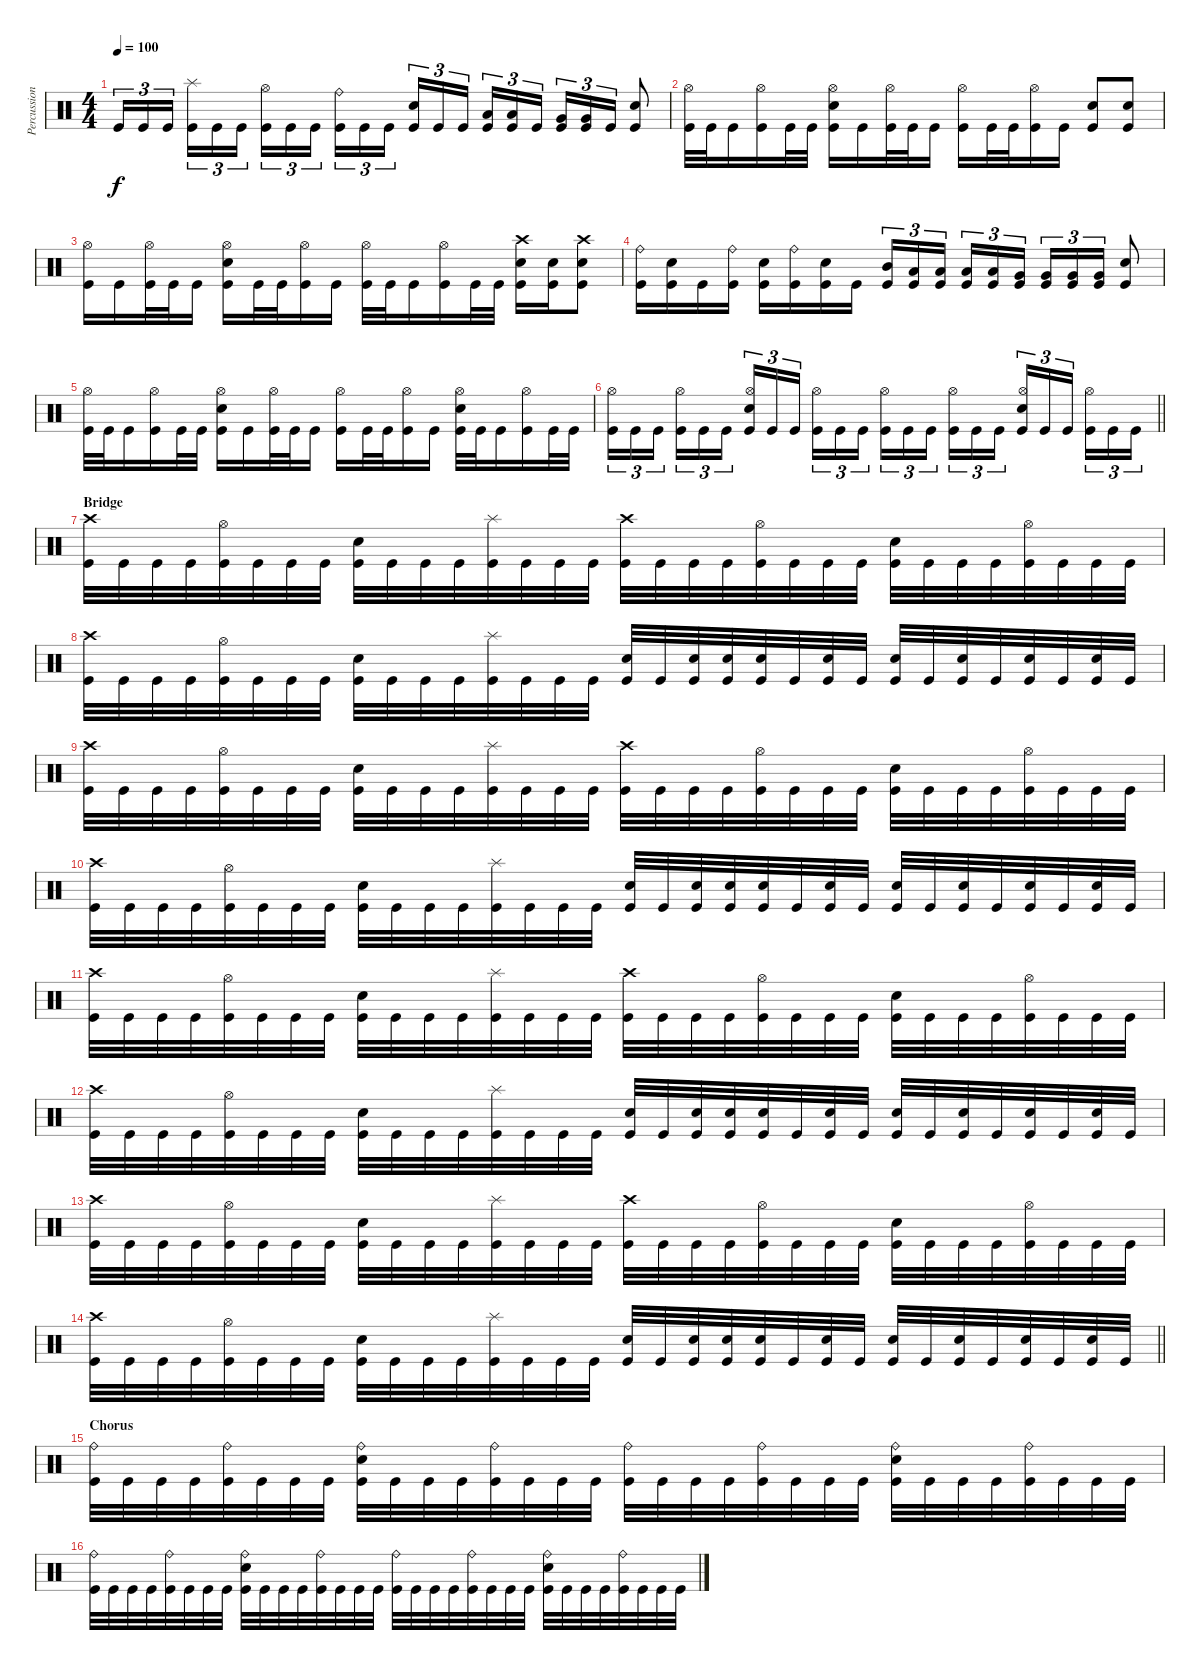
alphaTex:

\track ("Percussions" "Percussion") {instrument percussion}
\staff {score}
\articulation defaults
\ts (4 4)
\tempo 100
\clef neutral
\ks c "Kick (hit)".16{tu (3 2) dy f} "Kick (hit)".16{tu (3 2)} "Kick (hit)".16{tu (3 2) beam splitsecondary}
("Splash (hit)" "Kick (hit)").16{tu (3 2)} "Kick (hit)".16{tu (3 2)} "Kick (hit)".16{tu (3 2)} ("Hi-Hat (open)" "Kick (hit)").16{tu (3 2)} "Kick (hit)".16{tu (3 2)} "Kick (hit)".16{tu (3 2) beam splitsecondary} ("Ride (bell)" "Kick (hit)").16{tu (3 2)} "Kick (hit)".16{tu (3 2)} "Kick (hit)".16{tu (3 2)} ("Electric Snare (hit)" "Kick (hit)").16{tu (3 2)} "Kick (hit)".16{tu (3 2)} "Kick (hit)".16{tu (3 2) beam splitsecondary} ("Low Tom (hit)" "Kick (hit)").16{tu (3 2)} ("Low Tom (hit)" "Kick (hit)").16{tu (3 2)} "Kick (hit)".16{tu (3 2)} ("Very Low Tom (hit)" "Kick (hit)").16{tu (3 2)} ("Very Low Tom (hit)" "Kick (hit)").16{tu (3 2)} "Kick (hit)".16{tu (3 2)} ("Electric Snare (hit)" "Kick (hit)").8 |
("Hi-Hat (open)" "Kick (hit)").32 "Kick (hit)".32 "Kick (hit)".16 ("Hi-Hat (open)" "Kick (hit)").16 "Kick (hit)".32 "Kick (hit)".32 ("Hi-Hat (open)" "Electric Snare (hit)" "Kick (hit)").16 "Kick (hit)".16 ("Hi-Hat (open)" "Kick (hit)").32 "Kick (hit)".32 "Kick (hit)".16 ("Hi-Hat (open)" "Kick (hit)").16 "Kick (hit)".32 "Kick (hit)".32 ("Hi-Hat (open)" "Kick (hit)").16 "Kick (hit)".16 ("Electric Snare (hit)" "Kick (hit)").8 ("Electric Snare (hit)" "Kick (hit)").8 |
("Hi-Hat (open)" "Kick (hit)").16 "Kick (hit)".16 ("Hi-Hat (open)" "Kick (hit)").32 "Kick (hit)".32 "Kick (hit)".16 ("Hi-Hat (open)" "Electric Snare (hit)" "Kick (hit)").16 "Kick (hit)".32 "Kick (hit)".32 ("Hi-Hat (open)" "Kick (hit)").16 "Kick (hit)".16 ("Hi-Hat (open)" "Kick (hit)").32 "Kick (hit)".32 "Kick (hit)".16 ("Hi-Hat (open)" "Kick (hit)").16 "Kick (hit)".32 "Kick (hit)".32 ("Crash high (hit)" "Electric Snare (hit)" "Kick (hit)").16 ("Electric Snare (hit)" "Kick (hit)").16 ("Crash high (hit)" "Electric Snare (hit)" "Kick (hit)").8 |
("Ride (bell)" "Kick (hit)").16 ("Electric Snare (hit)" "Kick (hit)").16 "Kick (hit)".16 ("Ride (bell)" "Kick (hit)").16 ("Electric Snare (hit)" "Kick (hit)").16 ("Ride (bell)" "Kick (hit)").16 ("Electric Snare (hit)" "Kick (hit)").16 "Kick (hit)".16 ("Mid Tom (hit)" "Kick (hit)").16{tu (3 2)} ("Low Tom (hit)" "Kick (hit)").16{tu (3 2)} ("Low Tom (hit)" "Kick (hit)").16{tu (3 2) beam splitsecondary} ("Low Tom (hit)" "Kick (hit)").16{tu (3 2)} ("Low Tom (hit)" "Kick (hit)").16{tu (3 2)} ("Very Low Tom (hit)" "Kick (hit)").16{tu (3 2)} ("Very Low Tom (hit)" "Kick (hit)").16{tu (3 2)} ("Very Low Tom (hit)" "Kick (hit)").16{tu (3 2)} ("Very Low Tom (hit)" "Kick (hit)").16{tu (3 2)} ("Electric Snare (hit)" "Kick (hit)").8 |
("Hi-Hat (open)" "Kick (hit)").32 "Kick (hit)".32 "Kick (hit)".16 ("Hi-Hat (open)" "Kick (hit)").16 "Kick (hit)".32 "Kick (hit)".32 ("Hi-Hat (open)" "Electric Snare (hit)" "Kick (hit)").16 "Kick (hit)".16 ("Hi-Hat (open)" "Kick (hit)").32 "Kick (hit)".32 "Kick (hit)".16 ("Hi-Hat (open)" "Kick (hit)").16 "Kick (hit)".32 "Kick (hit)".32 ("Hi-Hat (open)" "Kick (hit)").16 "Kick (hit)".16 ("Hi-Hat (open)" "Electric Snare (hit)" "Kick (hit)").32 "Kick (hit)".32 "Kick (hit)".16 ("Hi-Hat (open)" "Kick (hit)").16 "Kick (hit)".32 "Kick (hit)".32 |
\barLineRight lightlight
("Hi-Hat (open)" "Kick (hit)").16{tu (3 2)} "Kick (hit)".16{tu (3 2)} "Kick (hit)".16{tu (3 2) beam splitsecondary} ("Hi-Hat (open)" "Kick (hit)").16{tu (3 2)} "Kick (hit)".16{tu (3 2)} "Kick (hit)".16{tu (3 2)} ("Hi-Hat (open)" "Electric Snare (hit)" "Kick (hit)").16{tu (3 2)} "Kick (hit)".16{tu (3 2)} "Kick (hit)".16{tu (3 2) beam splitsecondary} ("Hi-Hat (open)" "Kick (hit)").16{tu (3 2)} "Kick (hit)".16{tu (3 2)} "Kick (hit)".16{tu (3 2)} ("Hi-Hat (open)" "Kick (hit)").16{tu (3 2)} "Kick (hit)".16{tu (3 2)} "Kick (hit)".16{tu (3 2) beam splitsecondary} ("Hi-Hat (open)" "Kick (hit)").16{tu (3 2)} "Kick (hit)".16{tu (3 2)} "Kick (hit)".16{tu (3 2)} ("Hi-Hat (open)" "Electric Snare (hit)" "Kick (hit)").16{tu (3 2)} "Kick (hit)".16{tu (3 2)} "Kick (hit)".16{tu (3 2) beam splitsecondary} ("Hi-Hat (open)" "Kick (hit)").16{tu (3 2)} "Kick (hit)".16{tu (3 2)} "Kick (hit)".16{tu (3 2)} |
\section ("" "Bridge")
("Crash high (hit)" "Kick (hit)").32 "Kick (hit)".32 "Kick (hit)".32 "Kick (hit)".32 ("Hi-Hat (open)" "Kick (hit)").32 "Kick (hit)".32 "Kick (hit)".32 "Kick (hit)".32 ("Electric Snare (hit)" "Kick (hit)").32 "Kick (hit)".32 "Kick (hit)".32 "Kick (hit)".32 ("Splash (hit)" "Kick (hit)").32 "Kick (hit)".32 "Kick (hit)".32 "Kick (hit)".32 ("Crash high (hit)" "Kick (hit)").32 "Kick (hit)".32 "Kick (hit)".32 "Kick (hit)".32 ("Hi-Hat (open)" "Kick (hit)").32 "Kick (hit)".32 "Kick (hit)".32 "Kick (hit)".32 ("Electric Snare (hit)" "Kick (hit)").32 "Kick (hit)".32 "Kick (hit)".32 "Kick (hit)".32 ("Hi-Hat (open)" "Kick (hit)").32 "Kick (hit)".32 "Kick (hit)".32 "Kick (hit)".32 |
("Crash high (hit)" "Kick (hit)").32 "Kick (hit)".32 "Kick (hit)".32 "Kick (hit)".32 ("Hi-Hat (open)" "Kick (hit)").32 "Kick (hit)".32 "Kick (hit)".32 "Kick (hit)".32 ("Electric Snare (hit)" "Kick (hit)").32 "Kick (hit)".32 "Kick (hit)".32 "Kick (hit)".32 ("Splash (hit)" "Kick (hit)").32 "Kick (hit)".32 "Kick (hit)".32 "Kick (hit)".32 ("Electric Snare (hit)" "Kick (hit)").32 "Kick (hit)".32 ("Electric Snare (hit)" "Kick (hit)").32 ("Electric Snare (hit)" "Kick (hit)").32 ("Electric Snare (hit)" "Kick (hit)").32 "Kick (hit)".32 ("Electric Snare (hit)" "Kick (hit)").32 "Kick (hit)".32 ("Electric Snare (hit)" "Kick (hit)").32 "Kick (hit)".32 ("Electric Snare (hit)" "Kick (hit)").32 "Kick (hit)".32 ("Electric Snare (hit)" "Kick (hit)").32 "Kick (hit)".32 ("Electric Snare (hit)" "Kick (hit)").32 "Kick (hit)".32 |
("Crash high (hit)" "Kick (hit)").32 "Kick (hit)".32 "Kick (hit)".32 "Kick (hit)".32 ("Hi-Hat (open)" "Kick (hit)").32 "Kick (hit)".32 "Kick (hit)".32 "Kick (hit)".32 ("Electric Snare (hit)" "Kick (hit)").32 "Kick (hit)".32 "Kick (hit)".32 "Kick (hit)".32 ("Splash (hit)" "Kick (hit)").32 "Kick (hit)".32 "Kick (hit)".32 "Kick (hit)".32 ("Crash high (hit)" "Kick (hit)").32 "Kick (hit)".32 "Kick (hit)".32 "Kick (hit)".32 ("Hi-Hat (open)" "Kick (hit)").32 "Kick (hit)".32 "Kick (hit)".32 "Kick (hit)".32 ("Electric Snare (hit)" "Kick (hit)").32 "Kick (hit)".32 "Kick (hit)".32 "Kick (hit)".32 ("Hi-Hat (open)" "Kick (hit)").32 "Kick (hit)".32 "Kick (hit)".32 "Kick (hit)".32 |
("Crash high (hit)" "Kick (hit)").32 "Kick (hit)".32 "Kick (hit)".32 "Kick (hit)".32 ("Hi-Hat (open)" "Kick (hit)").32 "Kick (hit)".32 "Kick (hit)".32 "Kick (hit)".32 ("Electric Snare (hit)" "Kick (hit)").32 "Kick (hit)".32 "Kick (hit)".32 "Kick (hit)".32 ("Splash (hit)" "Kick (hit)").32 "Kick (hit)".32 "Kick (hit)".32 "Kick (hit)".32 ("Electric Snare (hit)" "Kick (hit)").32 "Kick (hit)".32 ("Electric Snare (hit)" "Kick (hit)").32 ("Electric Snare (hit)" "Kick (hit)").32 ("Electric Snare (hit)" "Kick (hit)").32 "Kick (hit)".32 ("Electric Snare (hit)" "Kick (hit)").32 "Kick (hit)".32 ("Electric Snare (hit)" "Kick (hit)").32 "Kick (hit)".32 ("Electric Snare (hit)" "Kick (hit)").32 "Kick (hit)".32 ("Electric Snare (hit)" "Kick (hit)").32 "Kick (hit)".32 ("Electric Snare (hit)" "Kick (hit)").32 "Kick (hit)".32 |
("Crash high (hit)" "Kick (hit)").32 "Kick (hit)".32 "Kick (hit)".32 "Kick (hit)".32 ("Hi-Hat (open)" "Kick (hit)").32 "Kick (hit)".32 "Kick (hit)".32 "Kick (hit)".32 ("Electric Snare (hit)" "Kick (hit)").32 "Kick (hit)".32 "Kick (hit)".32 "Kick (hit)".32 ("Splash (hit)" "Kick (hit)").32 "Kick (hit)".32 "Kick (hit)".32 "Kick (hit)".32 ("Crash high (hit)" "Kick (hit)").32 "Kick (hit)".32 "Kick (hit)".32 "Kick (hit)".32 ("Hi-Hat (open)" "Kick (hit)").32 "Kick (hit)".32 "Kick (hit)".32 "Kick (hit)".32 ("Electric Snare (hit)" "Kick (hit)").32 "Kick (hit)".32 "Kick (hit)".32 "Kick (hit)".32 ("Hi-Hat (open)" "Kick (hit)").32 "Kick (hit)".32 "Kick (hit)".32 "Kick (hit)".32 |
("Crash high (hit)" "Kick (hit)").32 "Kick (hit)".32 "Kick (hit)".32 "Kick (hit)".32 ("Hi-Hat (open)" "Kick (hit)").32 "Kick (hit)".32 "Kick (hit)".32 "Kick (hit)".32 ("Electric Snare (hit)" "Kick (hit)").32 "Kick (hit)".32 "Kick (hit)".32 "Kick (hit)".32 ("Splash (hit)" "Kick (hit)").32 "Kick (hit)".32 "Kick (hit)".32 "Kick (hit)".32 ("Electric Snare (hit)" "Kick (hit)").32 "Kick (hit)".32 ("Electric Snare (hit)" "Kick (hit)").32 ("Electric Snare (hit)" "Kick (hit)").32 ("Electric Snare (hit)" "Kick (hit)").32 "Kick (hit)".32 ("Electric Snare (hit)" "Kick (hit)").32 "Kick (hit)".32 ("Electric Snare (hit)" "Kick (hit)").32 "Kick (hit)".32 ("Electric Snare (hit)" "Kick (hit)").32 "Kick (hit)".32 ("Electric Snare (hit)" "Kick (hit)").32 "Kick (hit)".32 ("Electric Snare (hit)" "Kick (hit)").32 "Kick (hit)".32 |
("Crash high (hit)" "Kick (hit)").32 "Kick (hit)".32 "Kick (hit)".32 "Kick (hit)".32 ("Hi-Hat (open)" "Kick (hit)").32 "Kick (hit)".32 "Kick (hit)".32 "Kick (hit)".32 ("Electric Snare (hit)" "Kick (hit)").32 "Kick (hit)".32 "Kick (hit)".32 "Kick (hit)".32 ("Splash (hit)" "Kick (hit)").32 "Kick (hit)".32 "Kick (hit)".32 "Kick (hit)".32 ("Crash high (hit)" "Kick (hit)").32 "Kick (hit)".32 "Kick (hit)".32 "Kick (hit)".32 ("Hi-Hat (open)" "Kick (hit)").32 "Kick (hit)".32 "Kick (hit)".32 "Kick (hit)".32 ("Electric Snare (hit)" "Kick (hit)").32 "Kick (hit)".32 "Kick (hit)".32 "Kick (hit)".32 ("Hi-Hat (open)" "Kick (hit)").32 "Kick (hit)".32 "Kick (hit)".32 "Kick (hit)".32 |
\barLineRight lightlight
("Crash high (hit)" "Kick (hit)").32 "Kick (hit)".32 "Kick (hit)".32 "Kick (hit)".32 ("Hi-Hat (open)" "Kick (hit)").32 "Kick (hit)".32 "Kick (hit)".32 "Kick (hit)".32 ("Electric Snare (hit)" "Kick (hit)").32 "Kick (hit)".32 "Kick (hit)".32 "Kick (hit)".32 ("Splash (hit)" "Kick (hit)").32 "Kick (hit)".32 "Kick (hit)".32 "Kick (hit)".32 ("Electric Snare (hit)" "Kick (hit)").32 "Kick (hit)".32 ("Electric Snare (hit)" "Kick (hit)").32 ("Electric Snare (hit)" "Kick (hit)").32 ("Electric Snare (hit)" "Kick (hit)").32 "Kick (hit)".32 ("Electric Snare (hit)" "Kick (hit)").32 "Kick (hit)".32 ("Electric Snare (hit)" "Kick (hit)").32 "Kick (hit)".32 ("Electric Snare (hit)" "Kick (hit)").32 "Kick (hit)".32 ("Electric Snare (hit)" "Kick (hit)").32 "Kick (hit)".32 ("Electric Snare (hit)" "Kick (hit)").32 "Kick (hit)".32 |
\section ("" "Chorus")
("Ride (bell)" "Kick (hit)").32 "Kick (hit)".32 "Kick (hit)".32 "Kick (hit)".32 ("Ride (bell)" "Kick (hit)").32 "Kick (hit)".32 "Kick (hit)".32 "Kick (hit)".32 ("Ride (bell)" "Electric Snare (hit)" "Kick (hit)").32 "Kick (hit)".32 "Kick (hit)".32 "Kick (hit)".32 ("Ride (bell)" "Kick (hit)").32 "Kick (hit)".32 "Kick (hit)".32 "Kick (hit)".32 ("Ride (bell)" "Kick (hit)").32 "Kick (hit)".32 "Kick (hit)".32 "Kick (hit)".32 ("Ride (bell)" "Kick (hit)").32 "Kick (hit)".32 "Kick (hit)".32 "Kick (hit)".32 ("Ride (bell)" "Electric Snare (hit)" "Kick (hit)").32 "Kick (hit)".32 "Kick (hit)".32 "Kick (hit)".32 ("Ride (bell)" "Kick (hit)").32 "Kick (hit)".32 "Kick (hit)".32 "Kick (hit)".32 |
("Ride (bell)" "Kick (hit)").32 "Kick (hit)".32 "Kick (hit)".32 "Kick (hit)".32 ("Ride (bell)" "Kick (hit)").32 "Kick (hit)".32 "Kick (hit)".32 "Kick (hit)".32 ("Ride (bell)" "Electric Snare (hit)" "Kick (hit)").32 "Kick (hit)".32 "Kick (hit)".32 "Kick (hit)".32 ("Ride (bell)" "Kick (hit)").32 "Kick (hit)".32 "Kick (hit)".32 "Kick (hit)".32 ("Ride (bell)" "Kick (hit)").32 "Kick (hit)".32 "Kick (hit)".32 "Kick (hit)".32 ("Ride (bell)" "Kick (hit)").32 "Kick (hit)".32 "Kick (hit)".32 "Kick (hit)".32 ("Ride (bell)" "Electric Snare (hit)" "Kick (hit)").32 "Kick (hit)".32 "Kick (hit)".32 "Kick (hit)".32 ("Ride (bell)" "Kick (hit)").32 "Kick (hit)".32 "Kick (hit)".32 "Kick (hit)".32
